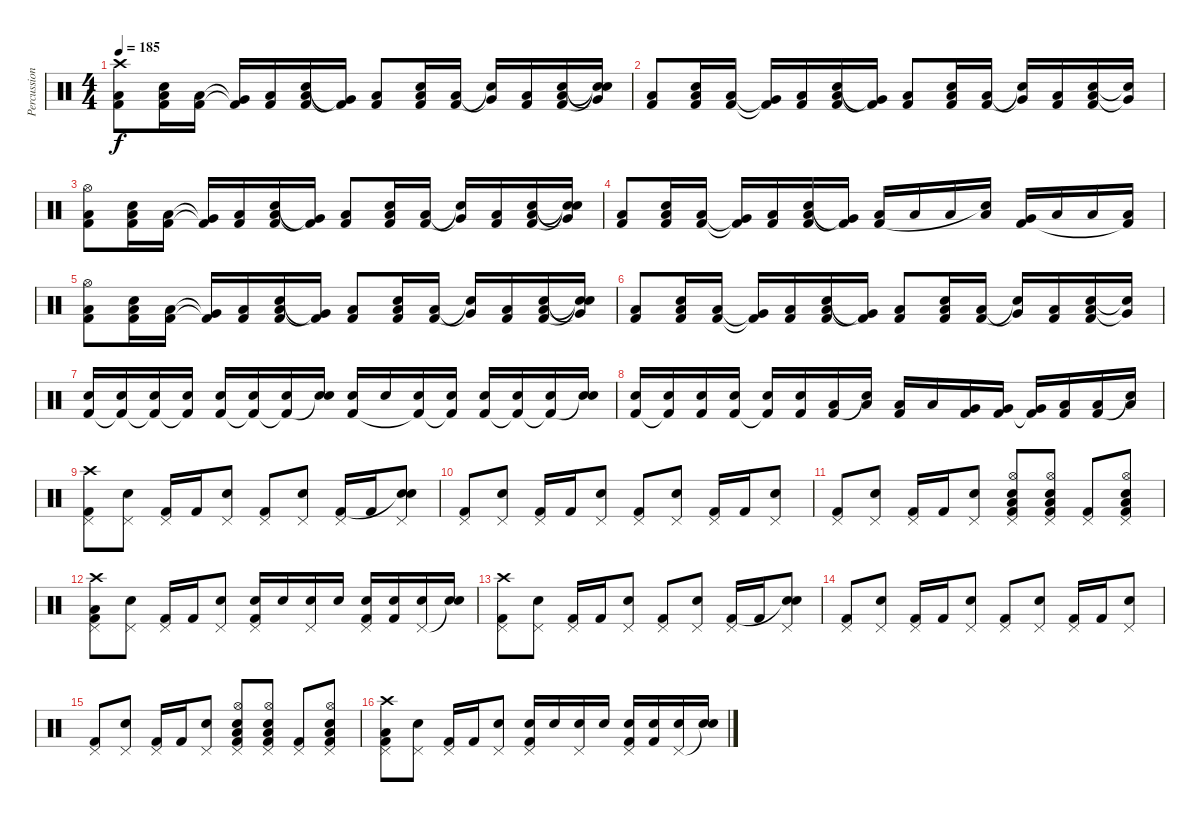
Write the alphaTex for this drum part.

\track ("Percussions" "Percussion") {instrument percussion}
\staff {score}
\articulation defaults
\ts (4 4)
\tempo 185
\clef neutral
\ks c
("Crash high (hit)" "Low Tom (hit)" "Kick (hit) 2").8{dy f} ("Low Floor Tom (hit)" "Snare (hit) 2" "Kick (hit) 2").16 ("Low Floor Tom (hit)" "Kick (hit) 2").16 ("Very Low Tom (hit)"{t} "Kick (hit) 2"{t}).16 ("Low Floor Tom (hit)" "Kick (hit) 2").16 ("Low Floor Tom (hit)" "Snare (hit) 2" "Kick (hit) 2").16 ("Very Low Tom (hit)"{t} "Kick (hit) 2"{t}).16 ("Low Tom (hit)" "Kick (hit) 2").8 ("Low Floor Tom (hit)" "Snare (hit) 2" "Kick (hit) 2").16 ("Low Floor Tom (hit)" "Kick (hit) 2").16 ("Very Low Tom (hit)"{t} "Snare (hit)"{t}).16 ("Low Floor Tom (hit)" "Kick (hit) 2").16 ("Low Floor Tom (hit)" "Snare (hit) 2" "Kick (hit) 2").16 ("Snare (hit)"{t} "Very Low Tom (hit)"{t} "Snare (hit)"{t}).16 |
("Low Tom (hit)" "Kick (hit) 2").8 ("Low Floor Tom (hit)" "Snare (hit) 2" "Kick (hit) 2").16 ("Low Floor Tom (hit)" "Kick (hit) 2").16 ("Very Low Tom (hit)"{t} "Kick (hit) 2"{t}).16 ("Low Floor Tom (hit)" "Kick (hit) 2").16 ("Low Floor Tom (hit)" "Snare (hit) 2" "Kick (hit) 2").16 ("Very Low Tom (hit)"{t} "Kick (hit) 2"{t}).16 ("Low Tom (hit)" "Kick (hit) 2").8 ("Low Floor Tom (hit)" "Snare (hit) 2" "Kick (hit) 2").16 ("Low Floor Tom (hit)" "Kick (hit) 2").16 ("Very Low Tom (hit)"{t} "Snare (hit)"{t}).16 ("Low Floor Tom (hit)" "Kick (hit) 2").16 ("Low Floor Tom (hit)" "Snare (hit) 2" "Kick (hit) 2").16 ("Very Low Tom (hit)"{t} "Snare (hit)"{t}).16 |
("Hi-Hat (open)" "Low Tom (hit)" "Kick (hit) 2").8 ("Low Floor Tom (hit)" "Snare (hit) 2" "Kick (hit) 2").16 ("Low Floor Tom (hit)" "Kick (hit) 2").16 ("Very Low Tom (hit)"{t} "Kick (hit) 2"{t}).16 ("Low Floor Tom (hit)" "Kick (hit) 2").16 ("Low Floor Tom (hit)" "Snare (hit) 2" "Kick (hit) 2").16 ("Very Low Tom (hit)"{t} "Kick (hit) 2"{t}).16 ("Low Tom (hit)" "Kick (hit) 2").8 ("Low Floor Tom (hit)" "Snare (hit) 2" "Kick (hit) 2").16 ("Low Floor Tom (hit)" "Kick (hit) 2").16 ("Very Low Tom (hit)"{t} "Snare (hit)"{t}).16 ("Low Floor Tom (hit)" "Kick (hit) 2").16 ("Low Floor Tom (hit)" "Snare (hit) 2" "Kick (hit) 2").16 ("Snare (hit)"{t} "Very Low Tom (hit)"{t} "Snare (hit)"{t}).16 |
("Low Tom (hit)" "Kick (hit) 2").8 ("Low Floor Tom (hit)" "Snare (hit) 2" "Kick (hit) 2").16 ("Low Floor Tom (hit)" "Kick (hit) 2").16 ("Very Low Tom (hit)"{t} "Kick (hit) 2"{t}).16 ("Low Floor Tom (hit)" "Kick (hit) 2").16 ("Low Floor Tom (hit)" "Snare (hit) 2" "Kick (hit) 2").16 ("Very Low Tom (hit)"{t} "Kick (hit) 2"{t}).16 ("Low Tom (hit)" "Kick (hit) 2").16 "Low Tom (hit)".16 "Low Tom (hit)".16 ("Low Tom (hit)" "Snare (hit)"{t}).16 ("Very Low Tom (hit)" "Kick (hit) 2").16 "Low Floor Tom (hit)".16 "Low Floor Tom (hit)".16 ("Low Floor Tom (hit)" "Kick (hit) 2"{t}).16 |
("Hi-Hat (open)" "Low Tom (hit)" "Kick (hit) 2").8 ("Low Floor Tom (hit)" "Snare (hit) 2" "Kick (hit) 2").16 ("Low Floor Tom (hit)" "Kick (hit) 2").16 ("Very Low Tom (hit)"{t} "Kick (hit) 2"{t}).16 ("Low Floor Tom (hit)" "Kick (hit) 2").16 ("Low Floor Tom (hit)" "Snare (hit) 2" "Kick (hit) 2").16 ("Very Low Tom (hit)"{t} "Kick (hit) 2"{t}).16 ("Low Tom (hit)" "Kick (hit) 2").8 ("Low Floor Tom (hit)" "Snare (hit) 2" "Kick (hit) 2").16 ("Low Floor Tom (hit)" "Kick (hit) 2").16 ("Very Low Tom (hit)"{t} "Snare (hit)"{t}).16 ("Low Floor Tom (hit)" "Kick (hit) 2").16 ("Low Floor Tom (hit)" "Snare (hit) 2" "Kick (hit) 2").16 ("Snare (hit)"{t} "Very Low Tom (hit)"{t} "Snare (hit)"{t}).16 |
("Low Tom (hit)" "Kick (hit) 2").8 ("Low Floor Tom (hit)" "Snare (hit) 2" "Kick (hit) 2").16 ("Low Floor Tom (hit)" "Kick (hit) 2").16 ("Very Low Tom (hit)"{t} "Kick (hit) 2"{t}).16 ("Low Floor Tom (hit)" "Kick (hit) 2").16 ("Low Floor Tom (hit)" "Snare (hit) 2" "Kick (hit) 2").16 ("Very Low Tom (hit)"{t} "Kick (hit) 2"{t}).16 ("Low Tom (hit)" "Kick (hit) 2").8 ("Low Floor Tom (hit)" "Snare (hit) 2" "Kick (hit) 2").16 ("Low Floor Tom (hit)" "Kick (hit) 2").16 ("Very Low Tom (hit)"{t} "Snare (hit)"{t}).16 ("Low Floor Tom (hit)" "Kick (hit) 2").16 ("Low Floor Tom (hit)" "Snare (hit) 2" "Kick (hit) 2").16 ("Very Low Tom (hit)"{t} "Snare (hit)"{t}).16 |
("Snare (hit) 2" "Kick (hit) 2").16 ("Snare (hit) 2" "Kick (hit) 2"{t}).16 ("Snare (hit) 2" "Kick (hit) 2"{t}).16 ("Snare (hit) 2" "Kick (hit) 2"{t}).16 ("Snare (hit) 2" "Kick (hit) 2").16 ("Snare (hit) 2" "Kick (hit) 2"{t}).16 ("Snare (hit) 2" "Kick (hit) 2"{t}).16 ("Snare (hit) 2" "Snare (hit)"{t}).16 ("Snare (hit) 2" "Kick (hit) 2").16 "Snare (hit) 2".16 ("Snare (hit) 2" "Kick (hit) 2"{t}).16 ("Snare (hit) 2" "Kick (hit) 2"{t}).16 ("Snare (hit) 2" "Kick (hit) 2").16 ("Snare (hit) 2" "Kick (hit) 2"{t}).16 ("Snare (hit) 2" "Kick (hit) 2"{t}).16 ("Snare (hit) 2" "Snare (hit)"{t}).16 |
("Snare (hit) 2" "Kick (hit) 2").16 ("Snare (hit) 2" "Kick (hit) 2"{t}).16 ("Snare (hit) 2" "Kick (hit) 2").16 ("Snare (hit) 2" "Kick (hit) 2").16 ("Snare (hit) 2" "Kick (hit) 2"{t}).16 ("Snare (hit) 2" "Kick (hit) 2").16 ("Low Tom (hit)" "Kick (hit) 2").16 ("Low Tom (hit)" "Snare (hit)"{t}).16 ("Low Tom (hit)" "Kick (hit) 2").16 "Low Tom (hit)".16 ("Very Low Tom (hit)" "Kick (hit) 2").16 ("Very Low Tom (hit)" "Kick (hit) 2").16 ("Very Low Tom (hit)" "Kick (hit) 2"{t}).16 ("Low Floor Tom (hit)" "Kick (hit) 2").16 ("Low Floor Tom (hit)" "Kick (hit) 2").16 ("Low Floor Tom (hit)" "Snare (hit)"{t}).16 |
("Pedal Hi-Hat (hit)" "Crash high (hit)" "Kick (hit) 2").8 ("Pedal Hi-Hat (hit)" "Snare (hit) 2").8 ("Pedal Hi-Hat (hit)" "Kick (hit) 2").16 "Kick (hit) 2".16 ("Pedal Hi-Hat (hit)" "Snare (hit) 2").8 ("Pedal Hi-Hat (hit)" "Kick (hit) 2").8 ("Pedal Hi-Hat (hit)" "Snare (hit) 2").8 ("Pedal Hi-Hat (hit)" "Kick (hit) 2").16 "Kick (hit) 2".16 ("Pedal Hi-Hat (hit)" "Snare (hit)"{t} "Snare (hit) 2").8 |
("Pedal Hi-Hat (hit)" "Kick (hit) 2").8 ("Pedal Hi-Hat (hit)" "Snare (hit) 2").8 ("Pedal Hi-Hat (hit)" "Kick (hit) 2").16 "Kick (hit) 2".16 ("Pedal Hi-Hat (hit)" "Snare (hit) 2").8 ("Pedal Hi-Hat (hit)" "Kick (hit) 2").8 ("Pedal Hi-Hat (hit)" "Snare (hit) 2").8 ("Pedal Hi-Hat (hit)" "Kick (hit) 2").16 "Kick (hit) 2".16 ("Pedal Hi-Hat (hit)" "Snare (hit) 2").8 |
("Pedal Hi-Hat (hit)" "Kick (hit) 2").8 ("Pedal Hi-Hat (hit)" "Snare (hit) 2").8 ("Pedal Hi-Hat (hit)" "Kick (hit) 2").16 "Kick (hit) 2".16 ("Pedal Hi-Hat (hit)" "Snare (hit) 2").8 ("Pedal Hi-Hat (hit)" "Hi-Hat (open)" "Low Tom (hit)" "Snare (hit) 2" "Kick (hit) 2").8 ("Pedal Hi-Hat (hit)" "Hi-Hat (open)" "Low Tom (hit)" "Snare (hit) 2" "Kick (hit) 2").8 ("Pedal Hi-Hat (hit)" "Kick (hit) 2").8 ("Pedal Hi-Hat (hit)" "Hi-Hat (open)" "Low Tom (hit)" "Snare (hit) 2" "Kick (hit) 2").8 |
("Pedal Hi-Hat (hit)" "Crash high (hit)" "Low Tom (hit)" "Kick (hit) 2").8 ("Pedal Hi-Hat (hit)" "Snare (hit) 2").8 ("Pedal Hi-Hat (hit)" "Kick (hit) 2").16 "Kick (hit) 2".16 ("Pedal Hi-Hat (hit)" "Snare (hit) 2").8 ("Pedal Hi-Hat (hit)" "Snare (hit) 2" "Kick (hit) 2").16 "Snare (hit) 2".16 ("Pedal Hi-Hat (hit)" "Snare (hit) 2").16 "Snare (hit) 2".16 ("Pedal Hi-Hat (hit)" "Snare (hit) 2" "Kick (hit) 2").16 ("Snare (hit) 2" "Kick (hit) 2").16 ("Pedal Hi-Hat (hit)" "Snare (hit) 2").16 ("Snare (hit)"{t} "Snare (hit) 2").16 |
("Pedal Hi-Hat (hit)" "Crash high (hit)" "Kick (hit) 2").8 ("Pedal Hi-Hat (hit)" "Snare (hit) 2").8 ("Pedal Hi-Hat (hit)" "Kick (hit) 2").16 "Kick (hit) 2".16 ("Pedal Hi-Hat (hit)" "Snare (hit) 2").8 ("Pedal Hi-Hat (hit)" "Kick (hit) 2").8 ("Pedal Hi-Hat (hit)" "Snare (hit) 2").8 ("Pedal Hi-Hat (hit)" "Kick (hit) 2").16 "Kick (hit) 2".16 ("Pedal Hi-Hat (hit)" "Snare (hit)"{t} "Snare (hit) 2").8 |
("Pedal Hi-Hat (hit)" "Kick (hit) 2").8 ("Pedal Hi-Hat (hit)" "Snare (hit) 2").8 ("Pedal Hi-Hat (hit)" "Kick (hit) 2").16 "Kick (hit) 2".16 ("Pedal Hi-Hat (hit)" "Snare (hit) 2").8 ("Pedal Hi-Hat (hit)" "Kick (hit) 2").8 ("Pedal Hi-Hat (hit)" "Snare (hit) 2").8 ("Pedal Hi-Hat (hit)" "Kick (hit) 2").16 "Kick (hit) 2".16 ("Pedal Hi-Hat (hit)" "Snare (hit) 2").8 |
("Pedal Hi-Hat (hit)" "Kick (hit) 2").8 ("Pedal Hi-Hat (hit)" "Snare (hit) 2").8 ("Pedal Hi-Hat (hit)" "Kick (hit) 2").16 "Kick (hit) 2".16 ("Pedal Hi-Hat (hit)" "Snare (hit) 2").8 ("Pedal Hi-Hat (hit)" "Hi-Hat (open)" "Low Tom (hit)" "Snare (hit) 2" "Kick (hit) 2").8 ("Pedal Hi-Hat (hit)" "Hi-Hat (open)" "Low Tom (hit)" "Snare (hit) 2" "Kick (hit) 2").8 ("Pedal Hi-Hat (hit)" "Kick (hit) 2").8 ("Pedal Hi-Hat (hit)" "Hi-Hat (open)" "Low Tom (hit)" "Snare (hit) 2" "Kick (hit) 2").8 |
("Pedal Hi-Hat (hit)" "Crash high (hit)" "Low Tom (hit)" "Kick (hit) 2").8 ("Pedal Hi-Hat (hit)" "Snare (hit) 2").8 ("Pedal Hi-Hat (hit)" "Kick (hit) 2").16 "Kick (hit) 2".16 ("Pedal Hi-Hat (hit)" "Snare (hit) 2").8 ("Pedal Hi-Hat (hit)" "Snare (hit) 2" "Kick (hit) 2").16 "Snare (hit) 2".16 ("Pedal Hi-Hat (hit)" "Snare (hit) 2").16 "Snare (hit) 2".16 ("Pedal Hi-Hat (hit)" "Snare (hit) 2" "Kick (hit) 2").16 ("Snare (hit) 2" "Kick (hit) 2").16 ("Pedal Hi-Hat (hit)" "Snare (hit) 2").16 ("Snare (hit)"{t} "Snare (hit) 2").16
